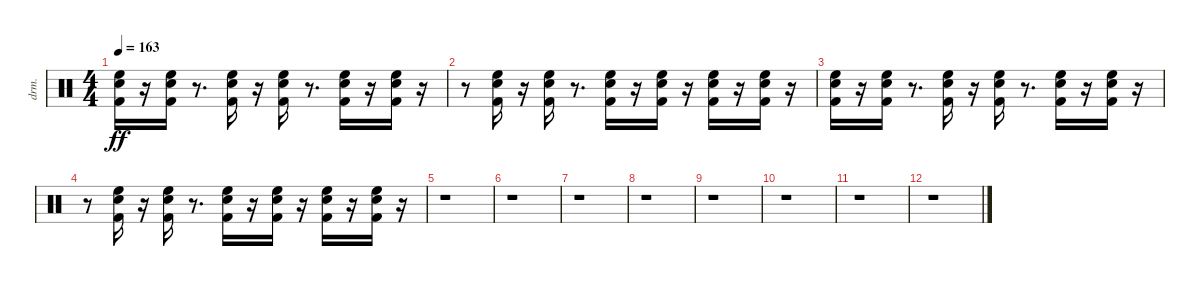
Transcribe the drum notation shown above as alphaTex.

\bracketExtendMode nobrackets
\track ("EZdrummer 3" "drm.") {instrument percussion}
\staff {score}
\articulation defaults
\ts (4 4)
\tempo 163
\clef neutral
\ks aminor
("Kick (hit) 2" "Snare (hit) 2" "High Floor Tom (hit)").16{dy ff beam Down} r.16{beam Down} ("Kick (hit) 2" "Snare (hit) 2" "High Floor Tom (hit)").16{beam Down} r.8{d beam Down} ("Kick (hit) 2" "Snare (hit) 2" "High Floor Tom (hit)").16{beam Down} r.16{beam Down} ("Kick (hit) 2" "Snare (hit) 2" "High Floor Tom (hit)").16{beam Down} r.8{d beam Down} ("Kick (hit) 2" "Snare (hit) 2" "High Floor Tom (hit)").16{beam Down} r.16{beam Down} ("Kick (hit) 2" "Snare (hit) 2" "High Floor Tom (hit)").16{beam Down} r.16{beam Down} |
r.8{beam Down} ("Kick (hit) 2" "Snare (hit) 2" "High Floor Tom (hit)").16{beam Down} r.16{beam Down} ("Kick (hit) 2" "Snare (hit) 2" "High Floor Tom (hit)").16{beam Down} r.8{d beam Down} ("Kick (hit) 2" "Snare (hit) 2" "High Floor Tom (hit)").16{beam Down} r.16{beam Down} ("Kick (hit) 2" "Snare (hit) 2" "High Floor Tom (hit)").16{beam Down} r.16{beam Down} ("Kick (hit) 2" "Snare (hit) 2" "High Floor Tom (hit)").16{beam Down} r.16{beam Down} ("Kick (hit) 2" "Snare (hit) 2" "High Floor Tom (hit)").16{beam Down} r.16{beam Down} |
("Kick (hit) 2" "Snare (hit) 2" "High Floor Tom (hit)").16{beam Down} r.16{beam Down} ("Kick (hit) 2" "Snare (hit) 2" "High Floor Tom (hit)").16{beam Down} r.8{d beam Down} ("Kick (hit) 2" "Snare (hit) 2" "High Floor Tom (hit)").16{beam Down} r.16{beam Down} ("Kick (hit) 2" "Snare (hit) 2" "High Floor Tom (hit)").16{beam Down} r.8{d beam Down} ("Kick (hit) 2" "Snare (hit) 2" "High Floor Tom (hit)").16{beam Down} r.16{beam Down} ("Kick (hit) 2" "Snare (hit) 2" "High Floor Tom (hit)").16{beam Down} r.16{beam Down} |
r.8{beam Down} ("Kick (hit) 2" "Snare (hit) 2" "High Floor Tom (hit)").16{beam Down} r.16{beam Down} ("Kick (hit) 2" "Snare (hit) 2" "High Floor Tom (hit)").16{beam Down} r.8{d beam Down} ("Kick (hit) 2" "Snare (hit) 2" "High Floor Tom (hit)").16{beam Down} r.16{beam Down} ("Kick (hit) 2" "Snare (hit) 2" "High Floor Tom (hit)").16{beam Down} r.16{beam Down} ("Kick (hit) 2" "Snare (hit) 2" "High Floor Tom (hit)").16{beam Down} r.16{beam Down} ("Kick (hit) 2" "Snare (hit) 2" "High Floor Tom (hit)").16{beam Down} r.16{beam Down} |
r.1{beam Down} |
r.1{beam Down} |
r.1{beam Down} |
r.1{beam Down} |
r.1{beam Down} |
r.1{beam Down} |
r.1{beam Down} |
r.1{beam Down}
